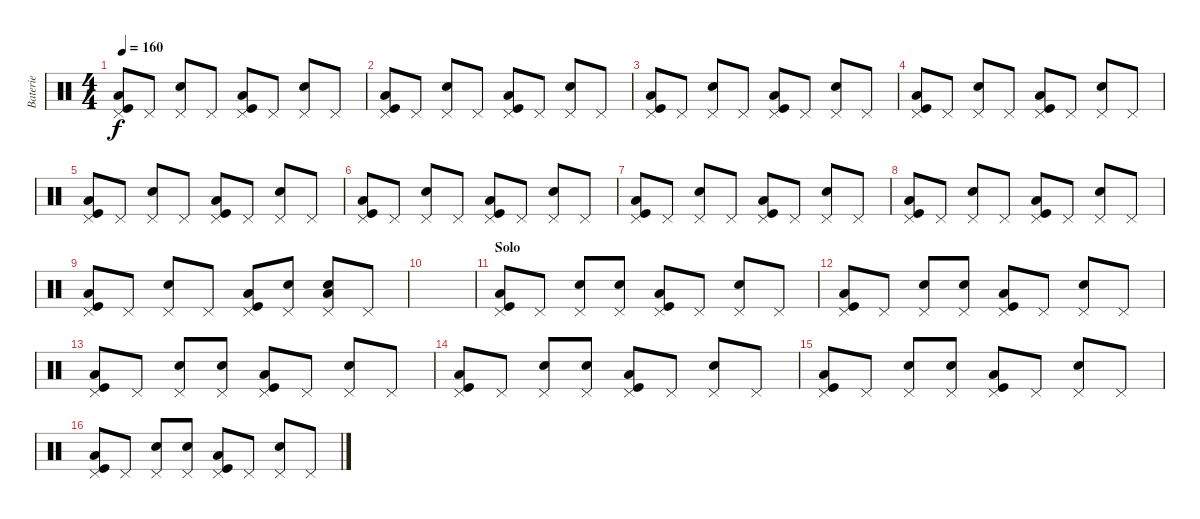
\track ("Baterie" "Baterie") {instrument percussion}
\staff {score}
\articulation defaults
\ts (4 4)
\tempo 160
\clef neutral
\ks c
("Pedal Hi-Hat (hit)" "Low Floor Tom (hit)" "Kick (hit)").8{dy f} "Pedal Hi-Hat (hit)".8 ("Pedal Hi-Hat (hit)" "Electric Snare (hit)").8 "Pedal Hi-Hat (hit)".8 ("Pedal Hi-Hat (hit)" "Low Floor Tom (hit)" "Kick (hit)").8 "Pedal Hi-Hat (hit)".8 ("Pedal Hi-Hat (hit)" "Electric Snare (hit)").8 "Pedal Hi-Hat (hit)".8 |
("Pedal Hi-Hat (hit)" "Low Floor Tom (hit)" "Kick (hit)").8 "Pedal Hi-Hat (hit)".8 ("Pedal Hi-Hat (hit)" "Electric Snare (hit)").8 "Pedal Hi-Hat (hit)".8 ("Pedal Hi-Hat (hit)" "Low Floor Tom (hit)" "Kick (hit)").8 "Pedal Hi-Hat (hit)".8 ("Pedal Hi-Hat (hit)" "Electric Snare (hit)").8 "Pedal Hi-Hat (hit)".8 |
("Pedal Hi-Hat (hit)" "Low Floor Tom (hit)" "Kick (hit)").8 "Pedal Hi-Hat (hit)".8 ("Pedal Hi-Hat (hit)" "Electric Snare (hit)").8 "Pedal Hi-Hat (hit)".8 ("Pedal Hi-Hat (hit)" "Low Floor Tom (hit)" "Kick (hit)").8 "Pedal Hi-Hat (hit)".8 ("Pedal Hi-Hat (hit)" "Electric Snare (hit)").8 "Pedal Hi-Hat (hit)".8 |
("Pedal Hi-Hat (hit)" "Low Floor Tom (hit)" "Kick (hit)").8 "Pedal Hi-Hat (hit)".8 ("Pedal Hi-Hat (hit)" "Electric Snare (hit)").8 "Pedal Hi-Hat (hit)".8 ("Pedal Hi-Hat (hit)" "Low Floor Tom (hit)" "Kick (hit)").8 "Pedal Hi-Hat (hit)".8 ("Pedal Hi-Hat (hit)" "Electric Snare (hit)").8 "Pedal Hi-Hat (hit)".8 |
("Pedal Hi-Hat (hit)" "Low Floor Tom (hit)" "Kick (hit)").8 "Pedal Hi-Hat (hit)".8 ("Pedal Hi-Hat (hit)" "Electric Snare (hit)").8 "Pedal Hi-Hat (hit)".8 ("Pedal Hi-Hat (hit)" "Low Floor Tom (hit)" "Kick (hit)").8 "Pedal Hi-Hat (hit)".8 ("Pedal Hi-Hat (hit)" "Electric Snare (hit)").8 "Pedal Hi-Hat (hit)".8 |
("Pedal Hi-Hat (hit)" "Low Floor Tom (hit)" "Kick (hit)").8 "Pedal Hi-Hat (hit)".8 ("Pedal Hi-Hat (hit)" "Electric Snare (hit)").8 "Pedal Hi-Hat (hit)".8 ("Pedal Hi-Hat (hit)" "Low Floor Tom (hit)" "Kick (hit)").8 "Pedal Hi-Hat (hit)".8 ("Pedal Hi-Hat (hit)" "Electric Snare (hit)").8 "Pedal Hi-Hat (hit)".8 |
("Pedal Hi-Hat (hit)" "Low Floor Tom (hit)" "Kick (hit)").8 "Pedal Hi-Hat (hit)".8 ("Pedal Hi-Hat (hit)" "Electric Snare (hit)").8 "Pedal Hi-Hat (hit)".8 ("Pedal Hi-Hat (hit)" "Low Floor Tom (hit)" "Kick (hit)").8 "Pedal Hi-Hat (hit)".8 ("Pedal Hi-Hat (hit)" "Electric Snare (hit)").8 "Pedal Hi-Hat (hit)".8 |
("Pedal Hi-Hat (hit)" "Low Floor Tom (hit)" "Kick (hit)").8 "Pedal Hi-Hat (hit)".8 ("Pedal Hi-Hat (hit)" "Electric Snare (hit)").8 "Pedal Hi-Hat (hit)".8 ("Pedal Hi-Hat (hit)" "Low Floor Tom (hit)" "Kick (hit)").8 "Pedal Hi-Hat (hit)".8 ("Pedal Hi-Hat (hit)" "Electric Snare (hit)").8 "Pedal Hi-Hat (hit)".8 |
("Pedal Hi-Hat (hit)" "Low Floor Tom (hit)" "Kick (hit)").8 "Pedal Hi-Hat (hit)".8 ("Pedal Hi-Hat (hit)" "Electric Snare (hit)").8 "Pedal Hi-Hat (hit)".8 ("Pedal Hi-Hat (hit)" "Low Floor Tom (hit)" "Kick (hit)").8 ("Pedal Hi-Hat (hit)" "Electric Snare (hit)").8 ("Pedal Hi-Hat (hit)" "Electric Snare (hit)" "Low Floor Tom (hit)").8 "Pedal Hi-Hat (hit)".8 |
|
\section ("" "Solo")
("Pedal Hi-Hat (hit)" "Low Floor Tom (hit)" "Kick (hit)").8 "Pedal Hi-Hat (hit)".8 ("Pedal Hi-Hat (hit)" "Electric Snare (hit)").8 ("Pedal Hi-Hat (hit)" "Electric Snare (hit)").8 ("Pedal Hi-Hat (hit)" "Low Floor Tom (hit)" "Kick (hit)").8 "Pedal Hi-Hat (hit)".8 ("Pedal Hi-Hat (hit)" "Electric Snare (hit)").8 "Pedal Hi-Hat (hit)".8 |
("Pedal Hi-Hat (hit)" "Low Floor Tom (hit)" "Kick (hit)").8 "Pedal Hi-Hat (hit)".8 ("Pedal Hi-Hat (hit)" "Electric Snare (hit)").8 ("Pedal Hi-Hat (hit)" "Electric Snare (hit)").8 ("Pedal Hi-Hat (hit)" "Low Floor Tom (hit)" "Kick (hit)").8 "Pedal Hi-Hat (hit)".8 ("Pedal Hi-Hat (hit)" "Electric Snare (hit)").8 "Pedal Hi-Hat (hit)".8 |
("Pedal Hi-Hat (hit)" "Low Floor Tom (hit)" "Kick (hit)").8 "Pedal Hi-Hat (hit)".8 ("Pedal Hi-Hat (hit)" "Electric Snare (hit)").8 ("Pedal Hi-Hat (hit)" "Electric Snare (hit)").8 ("Pedal Hi-Hat (hit)" "Low Floor Tom (hit)" "Kick (hit)").8 "Pedal Hi-Hat (hit)".8 ("Pedal Hi-Hat (hit)" "Electric Snare (hit)").8 "Pedal Hi-Hat (hit)".8 |
("Pedal Hi-Hat (hit)" "Low Floor Tom (hit)" "Kick (hit)").8 "Pedal Hi-Hat (hit)".8 ("Pedal Hi-Hat (hit)" "Electric Snare (hit)").8 ("Pedal Hi-Hat (hit)" "Electric Snare (hit)").8 ("Pedal Hi-Hat (hit)" "Low Floor Tom (hit)" "Kick (hit)").8 "Pedal Hi-Hat (hit)".8 ("Pedal Hi-Hat (hit)" "Electric Snare (hit)").8 "Pedal Hi-Hat (hit)".8 |
("Pedal Hi-Hat (hit)" "Low Floor Tom (hit)" "Kick (hit)").8 "Pedal Hi-Hat (hit)".8 ("Pedal Hi-Hat (hit)" "Electric Snare (hit)").8 ("Pedal Hi-Hat (hit)" "Electric Snare (hit)").8 ("Pedal Hi-Hat (hit)" "Low Floor Tom (hit)" "Kick (hit)").8 "Pedal Hi-Hat (hit)".8 ("Pedal Hi-Hat (hit)" "Electric Snare (hit)").8 "Pedal Hi-Hat (hit)".8 |
("Pedal Hi-Hat (hit)" "Low Floor Tom (hit)" "Kick (hit)").8 "Pedal Hi-Hat (hit)".8 ("Pedal Hi-Hat (hit)" "Electric Snare (hit)").8 ("Pedal Hi-Hat (hit)" "Electric Snare (hit)").8 ("Pedal Hi-Hat (hit)" "Low Floor Tom (hit)" "Kick (hit)").8 "Pedal Hi-Hat (hit)".8 ("Pedal Hi-Hat (hit)" "Electric Snare (hit)").8 "Pedal Hi-Hat (hit)".8
